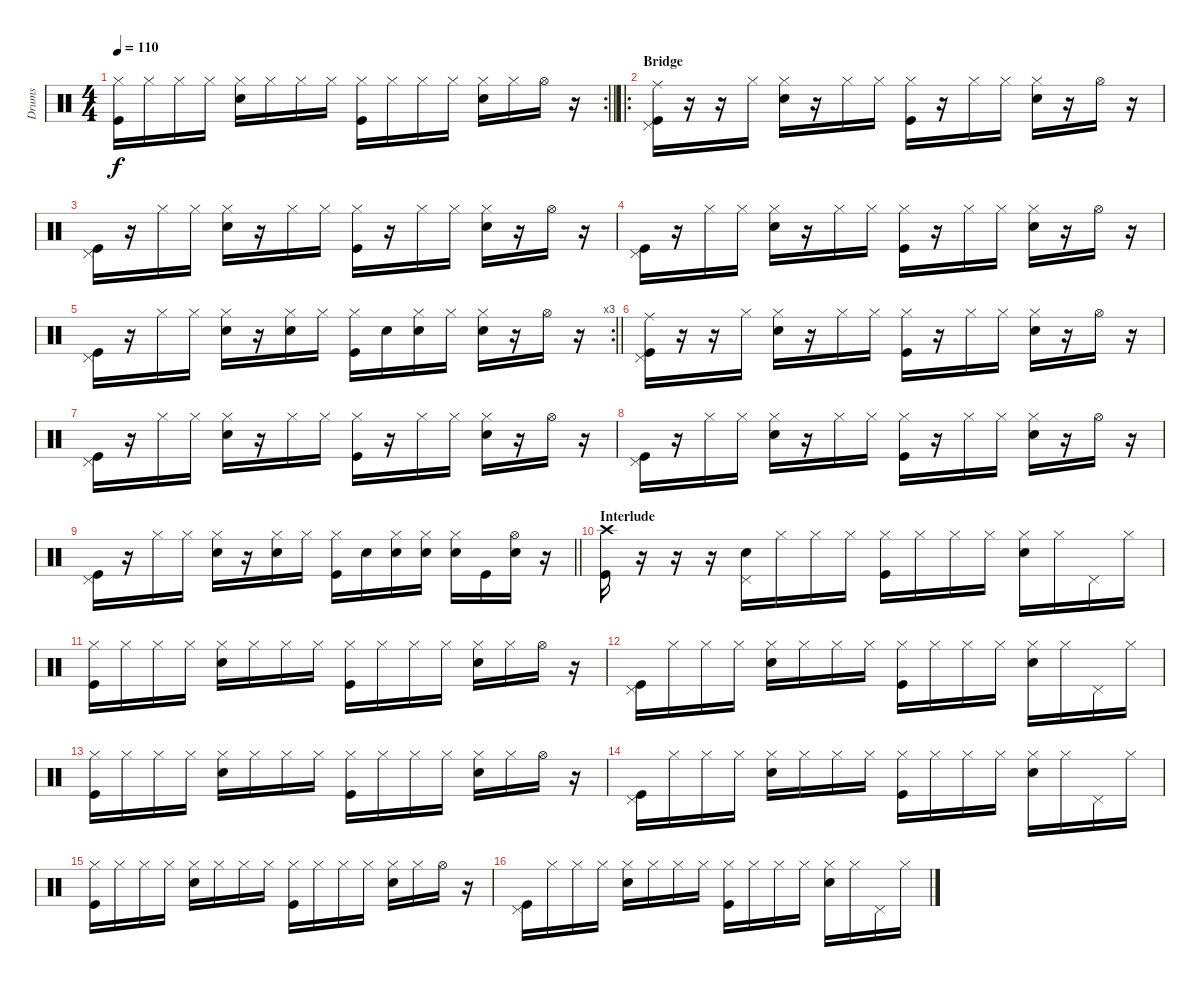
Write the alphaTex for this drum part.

\track ("Drums" "Drums") {instrument percussion}
\staff {score}
\articulation defaults
\rc 2
\ts (4 4)
\tempo 110
\clef neutral
\barLineRight lightlight
\ks c
("Hi-Hat (closed)" "Kick (hit)").16{dy f} "Hi-Hat (closed)".16 "Hi-Hat (closed)".16 "Hi-Hat (closed)".16 ("Hi-Hat (closed)" "Snare (hit) 2").16 "Hi-Hat (closed)".16 "Hi-Hat (closed)".16 "Hi-Hat (closed)".16 ("Hi-Hat (closed)" "Kick (hit)").16 "Hi-Hat (closed)".16 "Hi-Hat (closed)".16 "Hi-Hat (closed)".16 ("Hi-Hat (closed)" "Snare (hit) 2").16 "Hi-Hat (closed)".16 "Hi-Hat (open)".16 r.16 |
\ro
\section ("" "Bridge")
("Ride (middle)" "Pedal Hi-Hat (hit)" "Kick (hit)").16 r.16 r.16 "Hi-Hat (closed)".16 ("Hi-Hat (closed)" "Snare (hit) 2").16 r.16 "Hi-Hat (closed)".16 "Hi-Hat (closed)".16 ("Hi-Hat (closed)" "Kick (hit)").16 r.16 "Hi-Hat (closed)".16 "Hi-Hat (closed)".16 ("Hi-Hat (closed)" "Snare (hit) 2").16 r.16 "Hi-Hat (open)".16 r.16 |
("Pedal Hi-Hat (hit)" "Kick (hit)").16 r.16 "Hi-Hat (closed)".16 "Hi-Hat (closed)".16 ("Hi-Hat (closed)" "Snare (hit) 2").16 r.16 "Hi-Hat (closed)".16 "Hi-Hat (closed)".16 ("Hi-Hat (closed)" "Kick (hit)").16 r.16 "Hi-Hat (closed)".16 "Hi-Hat (closed)".16 ("Hi-Hat (closed)" "Snare (hit) 2").16 r.16 "Hi-Hat (open)".16 r.16 |
("Pedal Hi-Hat (hit)" "Kick (hit)").16 r.16 "Hi-Hat (closed)".16 "Hi-Hat (closed)".16 ("Hi-Hat (closed)" "Snare (hit) 2").16 r.16 "Hi-Hat (closed)".16 "Hi-Hat (closed)".16 ("Hi-Hat (closed)" "Kick (hit)").16 r.16 "Hi-Hat (closed)".16 "Hi-Hat (closed)".16 ("Hi-Hat (closed)" "Snare (hit) 2").16 r.16 "Hi-Hat (open)".16 r.16 |
\rc 3
\barLineRight lightlight
("Pedal Hi-Hat (hit)" "Kick (hit)").16 r.16 "Hi-Hat (closed)".16 "Hi-Hat (closed)".16 ("Hi-Hat (closed)" "Snare (hit) 2").16 r.16 ("Hi-Hat (closed)" "Snare (hit) 2").16 "Hi-Hat (closed)".16 ("Hi-Hat (closed)" "Kick (hit)").16 "Snare (hit) 2".16 ("Hi-Hat (closed)" "Snare (hit) 2").16 "Hi-Hat (closed)".16 ("Hi-Hat (closed)" "Snare (hit) 2").16 r.16 "Hi-Hat (open)".16 r.16 |
("Ride (middle)" "Pedal Hi-Hat (hit)" "Kick (hit)").16 r.16 r.16 "Hi-Hat (closed)".16 ("Hi-Hat (closed)" "Snare (hit) 2").16 r.16 "Hi-Hat (closed)".16 "Hi-Hat (closed)".16 ("Hi-Hat (closed)" "Kick (hit)").16 r.16 "Hi-Hat (closed)".16 "Hi-Hat (closed)".16 ("Hi-Hat (closed)" "Snare (hit) 2").16 r.16 "Hi-Hat (open)".16 r.16 |
("Pedal Hi-Hat (hit)" "Kick (hit)").16 r.16 "Hi-Hat (closed)".16 "Hi-Hat (closed)".16 ("Hi-Hat (closed)" "Snare (hit) 2").16 r.16 "Hi-Hat (closed)".16 "Hi-Hat (closed)".16 ("Hi-Hat (closed)" "Kick (hit)").16 r.16 "Hi-Hat (closed)".16 "Hi-Hat (closed)".16 ("Hi-Hat (closed)" "Snare (hit) 2").16 r.16 "Hi-Hat (open)".16 r.16 |
("Pedal Hi-Hat (hit)" "Kick (hit)").16 r.16 "Hi-Hat (closed)".16 "Hi-Hat (closed)".16 ("Hi-Hat (closed)" "Snare (hit) 2").16 r.16 "Hi-Hat (closed)".16 "Hi-Hat (closed)".16 ("Hi-Hat (closed)" "Kick (hit)").16 r.16 "Hi-Hat (closed)".16 "Hi-Hat (closed)".16 ("Hi-Hat (closed)" "Snare (hit) 2").16 r.16 "Hi-Hat (open)".16 r.16 |
\barLineRight lightlight
("Pedal Hi-Hat (hit)" "Kick (hit)").16 r.16 "Hi-Hat (closed)".16 "Hi-Hat (closed)".16 ("Hi-Hat (closed)" "Snare (hit) 2").16 r.16 ("Hi-Hat (closed)" "Snare (hit) 2").16 "Hi-Hat (closed)".16 ("Hi-Hat (closed)" "Kick (hit)").16 "Snare (hit) 2".16 ("Hi-Hat (closed)" "Snare (hit) 2").16 ("Hi-Hat (closed)" "Snare (hit) 2").16 ("Hi-Hat (closed)" "Snare (hit) 2").16 "Kick (hit)".16 ("Hi-Hat (open)" "Snare (hit) 2").16 r.16 |
\section ("" "Interlude")
("Crash high (hit)" "Kick (hit)").16 r.16 r.16 r.16 ("Pedal Hi-Hat (hit)" "Snare (hit) 2").16 "Hi-Hat (closed)".16 "Hi-Hat (closed)".16 "Hi-Hat (closed)".16 ("Hi-Hat (closed)" "Kick (hit)").16 "Hi-Hat (closed)".16 "Hi-Hat (closed)".16 "Hi-Hat (closed)".16 ("Hi-Hat (closed)" "Snare (hit) 2").16 "Hi-Hat (closed)".16 "Pedal Hi-Hat (hit)".16 "Hi-Hat (closed)".16 |
("Hi-Hat (closed)" "Kick (hit)").16 "Hi-Hat (closed)".16 "Hi-Hat (closed)".16 "Hi-Hat (closed)".16 ("Hi-Hat (closed)" "Snare (hit) 2").16 "Hi-Hat (closed)".16 "Hi-Hat (closed)".16 "Hi-Hat (closed)".16 ("Hi-Hat (closed)" "Kick (hit)").16 "Hi-Hat (closed)".16 "Hi-Hat (closed)".16 "Hi-Hat (closed)".16 ("Hi-Hat (closed)" "Snare (hit) 2").16 "Hi-Hat (closed)".16 "Hi-Hat (open)".16 r.16 |
("Pedal Hi-Hat (hit)" "Kick (hit)").16 "Hi-Hat (closed)".16 "Hi-Hat (closed)".16 "Hi-Hat (closed)".16 ("Hi-Hat (closed)" "Snare (hit) 2").16 "Hi-Hat (closed)".16 "Hi-Hat (closed)".16 "Hi-Hat (closed)".16 ("Hi-Hat (closed)" "Kick (hit)").16 "Hi-Hat (closed)".16 "Hi-Hat (closed)".16 "Hi-Hat (closed)".16 ("Hi-Hat (closed)" "Snare (hit) 2").16 "Hi-Hat (closed)".16 "Pedal Hi-Hat (hit)".16 "Hi-Hat (closed)".16 |
("Hi-Hat (closed)" "Kick (hit)").16 "Hi-Hat (closed)".16 "Hi-Hat (closed)".16 "Hi-Hat (closed)".16 ("Hi-Hat (closed)" "Snare (hit) 2").16 "Hi-Hat (closed)".16 "Hi-Hat (closed)".16 "Hi-Hat (closed)".16 ("Hi-Hat (closed)" "Kick (hit)").16 "Hi-Hat (closed)".16 "Hi-Hat (closed)".16 "Hi-Hat (closed)".16 ("Hi-Hat (closed)" "Snare (hit) 2").16 "Hi-Hat (closed)".16 "Hi-Hat (open)".16 r.16 |
("Pedal Hi-Hat (hit)" "Kick (hit)").16 "Hi-Hat (closed)".16 "Hi-Hat (closed)".16 "Hi-Hat (closed)".16 ("Hi-Hat (closed)" "Snare (hit) 2").16 "Hi-Hat (closed)".16 "Hi-Hat (closed)".16 "Hi-Hat (closed)".16 ("Hi-Hat (closed)" "Kick (hit)").16 "Hi-Hat (closed)".16 "Hi-Hat (closed)".16 "Hi-Hat (closed)".16 ("Hi-Hat (closed)" "Snare (hit) 2").16 "Hi-Hat (closed)".16 "Pedal Hi-Hat (hit)".16 "Hi-Hat (closed)".16 |
("Hi-Hat (closed)" "Kick (hit)").16 "Hi-Hat (closed)".16 "Hi-Hat (closed)".16 "Hi-Hat (closed)".16 ("Hi-Hat (closed)" "Snare (hit) 2").16 "Hi-Hat (closed)".16 "Hi-Hat (closed)".16 "Hi-Hat (closed)".16 ("Hi-Hat (closed)" "Kick (hit)").16 "Hi-Hat (closed)".16 "Hi-Hat (closed)".16 "Hi-Hat (closed)".16 ("Hi-Hat (closed)" "Snare (hit) 2").16 "Hi-Hat (closed)".16 "Hi-Hat (open)".16 r.16 |
("Pedal Hi-Hat (hit)" "Kick (hit)").16 "Hi-Hat (closed)".16 "Hi-Hat (closed)".16 "Hi-Hat (closed)".16 ("Hi-Hat (closed)" "Snare (hit) 2").16 "Hi-Hat (closed)".16 "Hi-Hat (closed)".16 "Hi-Hat (closed)".16 ("Hi-Hat (closed)" "Kick (hit)").16 "Hi-Hat (closed)".16 "Hi-Hat (closed)".16 "Hi-Hat (closed)".16 ("Hi-Hat (closed)" "Snare (hit) 2").16 "Hi-Hat (closed)".16 "Pedal Hi-Hat (hit)".16 "Hi-Hat (closed)".16
